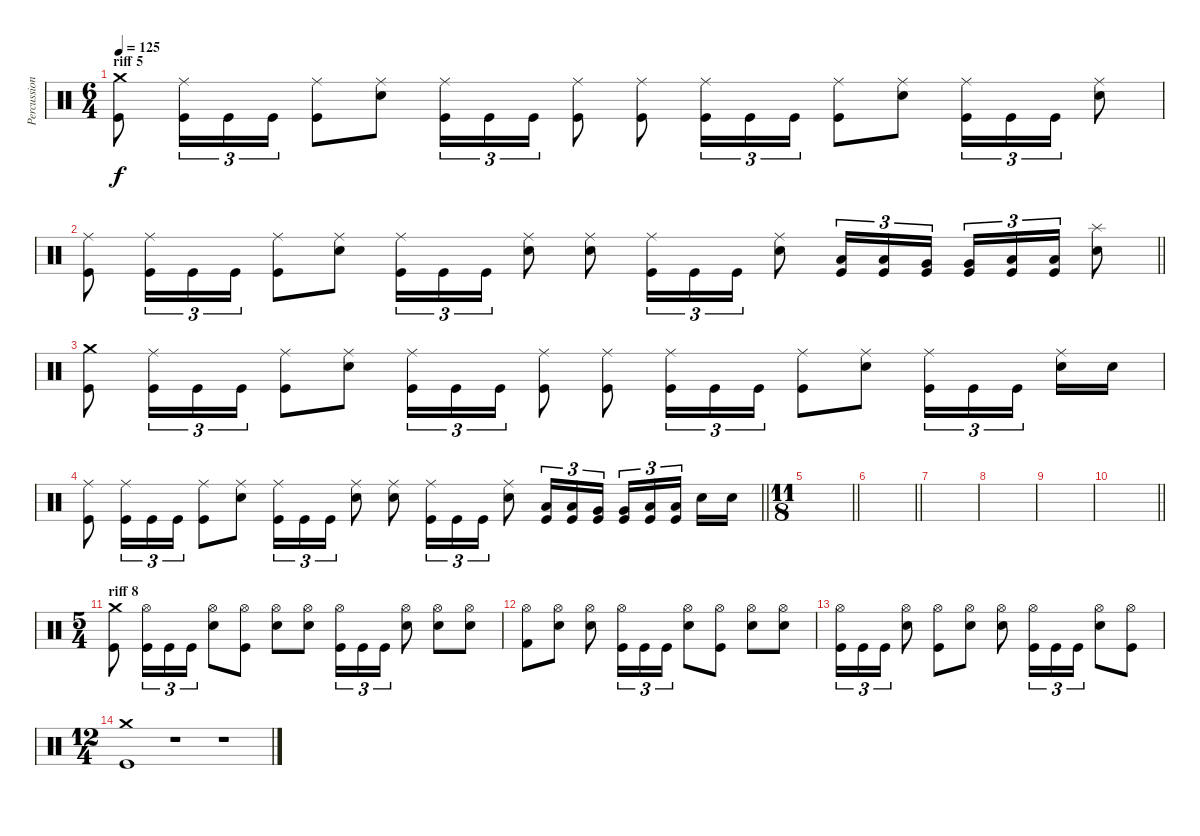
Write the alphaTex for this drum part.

\track ("Percussion" "Percussion") {instrument percussion}
\staff {score}
\articulation defaults
\ts (6 4)
\section ("" "riff 5")
\tempo 125
\clef neutral
\ks c
("Kick (hit)" "Crash medium (hit)").8{dy f} ("Kick (hit)" "Ride (middle)").16{tu (3 2)} "Kick (hit)".16{tu (3 2)} "Kick (hit)".16{tu (3 2)} ("Kick (hit)" "Ride (middle)").8 ("Ride (middle)" "Electric Snare (hit)").8 ("Kick (hit)" "Ride (middle)").16{tu (3 2)} "Kick (hit)".16{tu (3 2)} "Kick (hit)".16{tu (3 2)} ("Kick (hit)" "Ride (middle)").8 ("Kick (hit)" "Ride (middle)").8 ("Kick (hit)" "Ride (middle)").16{tu (3 2)} "Kick (hit)".16{tu (3 2)} "Kick (hit)".16{tu (3 2)} ("Kick (hit)" "Ride (middle)").8 ("Ride (middle)" "Electric Snare (hit)").8 ("Kick (hit)" "Ride (middle)").16{tu (3 2)} "Kick (hit)".16{tu (3 2)} "Kick (hit)".16{tu (3 2)} ("Ride (middle)" "Electric Snare (hit)").8 |
\barLineRight lightlight
("Kick (hit)" "Ride (middle)").8 ("Kick (hit)" "Ride (middle)").16{tu (3 2)} "Kick (hit)".16{tu (3 2)} "Kick (hit)".16{tu (3 2)} ("Kick (hit)" "Ride (middle)").8 ("Ride (middle)" "Electric Snare (hit)").8 ("Kick (hit)" "Ride (middle)").16{tu (3 2)} "Kick (hit)".16{tu (3 2)} "Kick (hit)".16{tu (3 2)} ("Ride (middle)" "Electric Snare (hit)").8 ("Ride (middle)" "Electric Snare (hit)").8 ("Kick (hit)" "Ride (middle)").16{tu (3 2)} "Kick (hit)".16{tu (3 2)} "Kick (hit)".16{tu (3 2)} ("Ride (middle)" "Electric Snare (hit)").8 ("Kick (hit)" "Low Tom (hit)").16{tu (3 2)} ("Kick (hit)" "Low Tom (hit)").16{tu (3 2)} ("Kick (hit)" "Very Low Tom (hit)").16{tu (3 2) beam splitsecondary} ("Kick (hit)" "Very Low Tom (hit)").16{tu (3 2)} ("Kick (hit)" "Low Floor Tom (hit)").16{tu (3 2)} ("Kick (hit)" "Low Floor Tom (hit)").16{tu (3 2)} ("Electric Snare (hit)" "Splash (hit)").8 |
("Kick (hit)" "Crash medium (hit)").8 ("Kick (hit)" "Ride (middle)").16{tu (3 2)} "Kick (hit)".16{tu (3 2)} "Kick (hit)".16{tu (3 2)} ("Kick (hit)" "Ride (middle)").8 ("Ride (middle)" "Electric Snare (hit)").8 ("Kick (hit)" "Ride (middle)").16{tu (3 2)} "Kick (hit)".16{tu (3 2)} "Kick (hit)".16{tu (3 2)} ("Kick (hit)" "Ride (middle)").8 ("Kick (hit)" "Ride (middle)").8 ("Kick (hit)" "Ride (middle)").16{tu (3 2)} "Kick (hit)".16{tu (3 2)} "Kick (hit)".16{tu (3 2)} ("Kick (hit)" "Ride (middle)").8 ("Ride (middle)" "Electric Snare (hit)").8 ("Kick (hit)" "Ride (middle)").16{tu (3 2)} "Kick (hit)".16{tu (3 2)} "Kick (hit)".16{tu (3 2) beam splitsecondary} ("Ride (middle)" "Electric Snare (hit)").16 "Electric Snare (hit)".16 |
\barLineRight lightlight
("Kick (hit)" "Ride (middle)").8 ("Kick (hit)" "Ride (middle)").16{tu (3 2)} "Kick (hit)".16{tu (3 2)} "Kick (hit)".16{tu (3 2)} ("Kick (hit)" "Ride (middle)").8 ("Ride (middle)" "Electric Snare (hit)").8 ("Kick (hit)" "Ride (middle)").16{tu (3 2)} "Kick (hit)".16{tu (3 2)} "Kick (hit)".16{tu (3 2)} ("Ride (middle)" "Electric Snare (hit)").8 ("Ride (middle)" "Electric Snare (hit)").8 ("Kick (hit)" "Ride (middle)").16{tu (3 2)} "Kick (hit)".16{tu (3 2)} "Kick (hit)".16{tu (3 2)} ("Ride (middle)" "Electric Snare (hit)").8 ("Kick (hit)" "Low Tom (hit)").16{tu (3 2)} ("Kick (hit)" "Low Tom (hit)").16{tu (3 2)} ("Kick (hit)" "Very Low Tom (hit)").16{tu (3 2) beam splitsecondary} ("Kick (hit)" "Very Low Tom (hit)").16{tu (3 2)} ("Kick (hit)" "Low Floor Tom (hit)").16{tu (3 2)} ("Kick (hit)" "Low Floor Tom (hit)").16{tu (3 2) beam splitsecondary} "Electric Snare (hit)".16 "Electric Snare (hit)".16 |
\ts (11 8)
\barLineRight lightlight
|
\barLineRight lightlight
|
|
|
|
\barLineRight lightlight
|
\ts (5 4)
\section ("" "riff 8")
("Kick (hit)" "Crash medium (hit)").8 ("Kick (hit)" "Hi-Hat (open)").16{tu (3 2)} "Kick (hit)".16{tu (3 2)} "Kick (hit)".16{tu (3 2)} ("Hi-Hat (open)" "Electric Snare (hit)").8 ("Kick (hit)" "Hi-Hat (open)").8 ("Hi-Hat (open)" "Electric Snare (hit)").8 ("Hi-Hat (open)" "Electric Snare (hit)").8 ("Kick (hit)" "Hi-Hat (open)").16{tu (3 2)} "Kick (hit)".16{tu (3 2)} "Kick (hit)".16{tu (3 2)} ("Hi-Hat (open)" "Electric Snare (hit)").8 ("Hi-Hat (open)" "Electric Snare (hit)").8 ("Hi-Hat (open)" "Electric Snare (hit)").8 |
("Kick (hit) 2" "Hi-Hat (open)").8 ("Hi-Hat (open)" "Electric Snare (hit)").8 ("Hi-Hat (open)" "Electric Snare (hit)").8 ("Kick (hit)" "Hi-Hat (open)").16{tu (3 2)} "Kick (hit)".16{tu (3 2)} "Kick (hit)".16{tu (3 2)} ("Hi-Hat (open)" "Electric Snare (hit)").8 ("Kick (hit)" "Hi-Hat (open)").8 ("Hi-Hat (open)" "Electric Snare (hit)").8 ("Hi-Hat (open)" "Electric Snare (hit)").8 |
("Kick (hit)" "Hi-Hat (open)").16{tu (3 2)} "Kick (hit)".16{tu (3 2)} "Kick (hit)".16{tu (3 2)} ("Hi-Hat (open)" "Electric Snare (hit)").8 ("Kick (hit)" "Hi-Hat (open)").8 ("Hi-Hat (open)" "Electric Snare (hit)").8 ("Hi-Hat (open)" "Electric Snare (hit)").8 ("Kick (hit)" "Hi-Hat (open)").16{tu (3 2)} "Kick (hit)".16{tu (3 2)} "Kick (hit)".16{tu (3 2)} ("Hi-Hat (open)" "Electric Snare (hit)").8 ("Kick (hit)" "Hi-Hat (open)").8 |
\ts (12 4)
("Kick (hit)" "Crash medium (hit)").1 r.1 r.1
